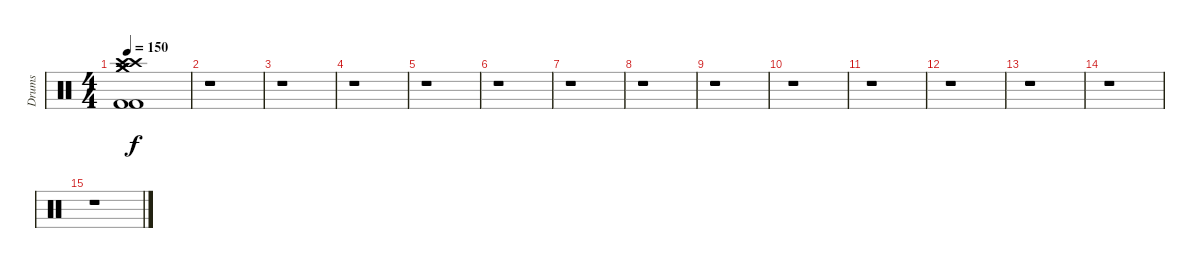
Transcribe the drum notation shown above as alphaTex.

\track ("Drums" "Drums") {instrument percussion}
\staff {score}
\articulation defaults
\ts (4 4)
\tempo 150
\clef neutral
\ks c
("Crash high (hit)" "Crash high (hit)" "Crash medium (hit)" "Crash medium (hit)" "Kick (hit) 2" "Kick (hit) 2").1{dy f} |
r.1 |
r.1 |
r.1 |
r.1 |
r.1 |
r.1 |
r.1 |
r.1 |
r.1 |
r.1 |
r.1 |
r.1 |
r.1 |
r.1
